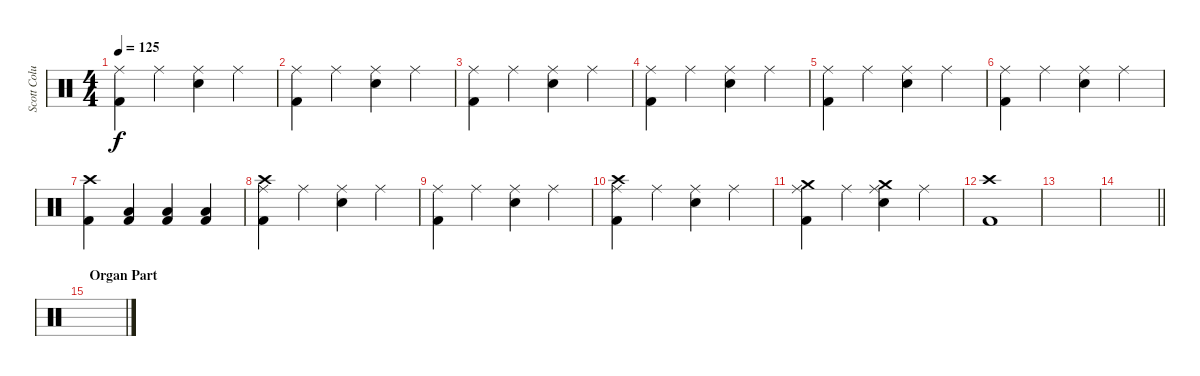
\track ("Scott Columbus" "Scott Colu") {instrument percussion}
\staff {score}
\articulation defaults
\ts (4 4)
\tempo 125
\clef neutral
\ks c
("Ride (middle)" "Kick (hit) 2").4{dy f} "Ride (middle)".4 ("Ride (middle)" "Snare (hit) 2").4 "Ride (middle)".4 |
("Ride (middle)" "Kick (hit) 2").4 "Ride (middle)".4 ("Ride (middle)" "Snare (hit) 2").4 "Ride (middle)".4 |
("Ride (middle)" "Kick (hit) 2").4 "Ride (middle)".4 ("Ride (middle)" "Snare (hit) 2").4 "Ride (middle)".4 |
("Ride (middle)" "Kick (hit) 2").4 "Ride (middle)".4 ("Ride (middle)" "Snare (hit) 2").4 "Ride (middle)".4 |
("Ride (middle)" "Kick (hit) 2").4 "Ride (middle)".4 ("Ride (middle)" "Snare (hit) 2").4 "Ride (middle)".4 |
("Ride (middle)" "Kick (hit) 2").4 "Ride (middle)".4 ("Ride (middle)" "Snare (hit) 2").4 "Ride (middle)".4 |
("Crash high (hit)" "Kick (hit) 2").4 ("Low Tom (hit)" "Kick (hit) 2").4 ("Low Tom (hit)" "Kick (hit) 2").4 ("Low Tom (hit)" "Kick (hit) 2").4 |
("Crash high (hit)" "Ride (middle)" "Kick (hit) 2").4 "Ride (middle)".4 ("Ride (middle)" "Snare (hit) 2").4 "Ride (middle)".4 |
("Ride (middle)" "Kick (hit) 2").4 "Ride (middle)".4 ("Ride (middle)" "Snare (hit) 2").4 "Ride (middle)".4 |
("Crash high (hit)" "Ride (middle)" "Kick (hit) 2").4 "Ride (middle)".4 ("Ride (middle)" "Snare (hit) 2").4 "Ride (middle)".4 |
("Crash medium (hit)" "Ride (middle)" "Kick (hit) 2").4 "Ride (middle)".4 ("Crash medium (hit)" "Ride (middle)" "Snare (hit) 2").4 "Ride (middle)".4 |
("Crash high (hit)" "Kick (hit) 2").1 |
|
\barLineRight lightlight
|
\section ("" "Organ Part")
